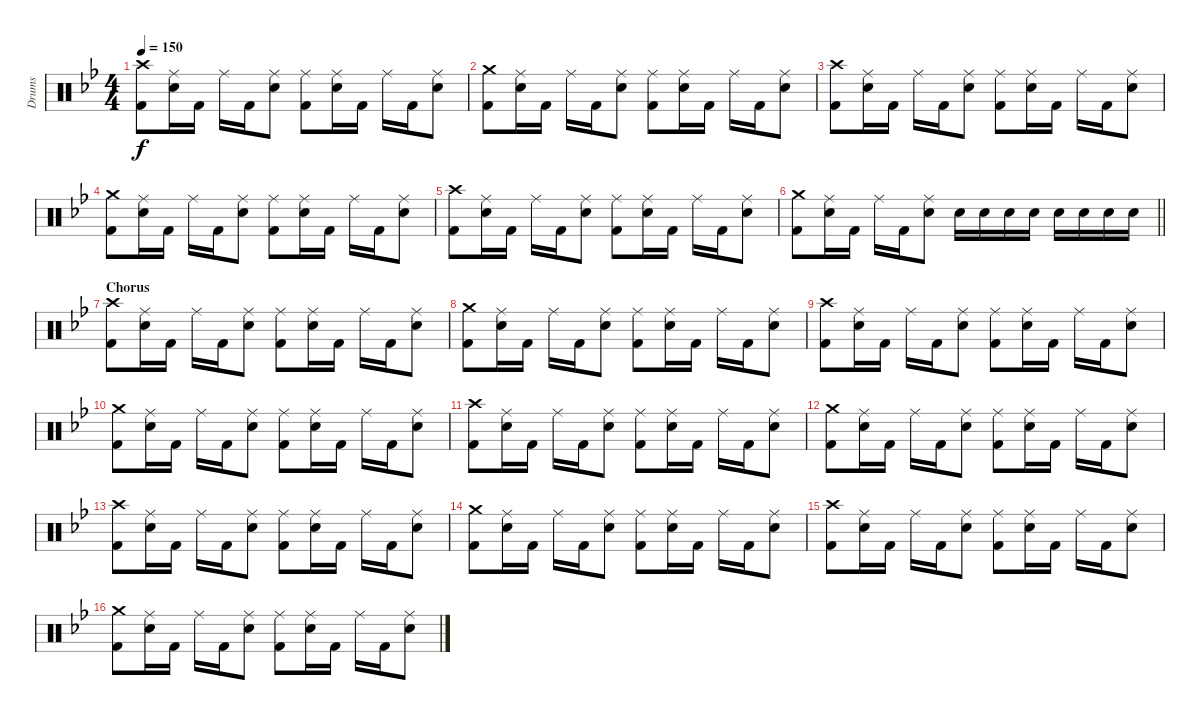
\track ("Drums" "Drums") {instrument percussion}
\staff {score}
\articulation defaults
\ts (4 4)
\tempo 150
\clef neutral
\ks bb
("Crash high (hit)" "Kick (hit) 2").8{dy f} ("Ride (middle)" "Snare (hit) 2").16 "Kick (hit) 2".16 "Ride (middle)".16 "Kick (hit) 2".16 ("Ride (middle)" "Snare (hit) 2").8 ("Ride (middle)" "Kick (hit) 2").8 ("Ride (middle)" "Snare (hit) 2").16 "Kick (hit) 2".16 "Ride (middle)".16 "Kick (hit) 2".16 ("Ride (middle)" "Snare (hit) 2").8 |
("Crash medium (hit)" "Kick (hit) 2").8 ("Ride (middle)" "Snare (hit) 2").16 "Kick (hit) 2".16 "Ride (middle)".16 "Kick (hit) 2".16 ("Ride (middle)" "Snare (hit) 2").8 ("Ride (middle)" "Kick (hit) 2").8 ("Ride (middle)" "Snare (hit) 2").16 "Kick (hit) 2".16 "Ride (middle)".16 "Kick (hit) 2".16 ("Ride (middle)" "Snare (hit) 2").8 |
("Crash high (hit)" "Kick (hit) 2").8 ("Ride (middle)" "Snare (hit) 2").16 "Kick (hit) 2".16 "Ride (middle)".16 "Kick (hit) 2".16 ("Ride (middle)" "Snare (hit) 2").8 ("Ride (middle)" "Kick (hit) 2").8 ("Ride (middle)" "Snare (hit) 2").16 "Kick (hit) 2".16 "Ride (middle)".16 "Kick (hit) 2".16 ("Ride (middle)" "Snare (hit) 2").8 |
("Crash medium (hit)" "Kick (hit) 2").8 ("Ride (middle)" "Snare (hit) 2").16 "Kick (hit) 2".16 "Ride (middle)".16 "Kick (hit) 2".16 ("Ride (middle)" "Snare (hit) 2").8 ("Ride (middle)" "Kick (hit) 2").8 ("Ride (middle)" "Snare (hit) 2").16 "Kick (hit) 2".16 "Ride (middle)".16 "Kick (hit) 2".16 ("Ride (middle)" "Snare (hit) 2").8 |
("Crash high (hit)" "Kick (hit) 2").8 ("Ride (middle)" "Snare (hit) 2").16 "Kick (hit) 2".16 "Ride (middle)".16 "Kick (hit) 2".16 ("Ride (middle)" "Snare (hit) 2").8 ("Ride (middle)" "Kick (hit) 2").8 ("Ride (middle)" "Snare (hit) 2").16 "Kick (hit) 2".16 "Ride (middle)".16 "Kick (hit) 2".16 ("Ride (middle)" "Snare (hit) 2").8 |
\barLineRight lightlight
("Crash medium (hit)" "Kick (hit) 2").8 ("Ride (middle)" "Snare (hit) 2").16 "Kick (hit) 2".16 "Ride (middle)".16 "Kick (hit) 2".16 ("Ride (middle)" "Snare (hit) 2").8 "Snare (hit) 2".16 "Snare (hit) 2".16 "Snare (hit) 2".16 "Snare (hit) 2".16 "Snare (hit) 2".16 "Snare (hit) 2".16 "Snare (hit) 2".16 "Snare (hit) 2".16 |
\section ("" "Chorus")
("Crash high (hit)" "Kick (hit) 2").8 ("Ride (middle)" "Snare (hit) 2").16 "Kick (hit) 2".16 "Ride (middle)".16 "Kick (hit) 2".16 ("Ride (middle)" "Snare (hit) 2").8 ("Ride (middle)" "Kick (hit) 2").8 ("Ride (middle)" "Snare (hit) 2").16 "Kick (hit) 2".16 "Ride (middle)".16 "Kick (hit) 2".16 ("Ride (middle)" "Snare (hit) 2").8 |
("Crash medium (hit)" "Kick (hit) 2").8 ("Ride (middle)" "Snare (hit) 2").16 "Kick (hit) 2".16 "Ride (middle)".16 "Kick (hit) 2".16 ("Ride (middle)" "Snare (hit) 2").8 ("Ride (middle)" "Kick (hit) 2").8 ("Ride (middle)" "Snare (hit) 2").16 "Kick (hit) 2".16 "Ride (middle)".16 "Kick (hit) 2".16 ("Ride (middle)" "Snare (hit) 2").8 |
("Crash high (hit)" "Kick (hit) 2").8 ("Ride (middle)" "Snare (hit) 2").16 "Kick (hit) 2".16 "Ride (middle)".16 "Kick (hit) 2".16 ("Ride (middle)" "Snare (hit) 2").8 ("Ride (middle)" "Kick (hit) 2").8 ("Ride (middle)" "Snare (hit) 2").16 "Kick (hit) 2".16 "Ride (middle)".16 "Kick (hit) 2".16 ("Ride (middle)" "Snare (hit) 2").8 |
("Crash medium (hit)" "Kick (hit) 2").8 ("Ride (middle)" "Snare (hit) 2").16 "Kick (hit) 2".16 "Ride (middle)".16 "Kick (hit) 2".16 ("Ride (middle)" "Snare (hit) 2").8 ("Ride (middle)" "Kick (hit) 2").8 ("Ride (middle)" "Snare (hit) 2").16 "Kick (hit) 2".16 "Ride (middle)".16 "Kick (hit) 2".16 ("Ride (middle)" "Snare (hit) 2").8 |
("Crash high (hit)" "Kick (hit) 2").8 ("Ride (middle)" "Snare (hit) 2").16 "Kick (hit) 2".16 "Ride (middle)".16 "Kick (hit) 2".16 ("Ride (middle)" "Snare (hit) 2").8 ("Ride (middle)" "Kick (hit) 2").8 ("Ride (middle)" "Snare (hit) 2").16 "Kick (hit) 2".16 "Ride (middle)".16 "Kick (hit) 2".16 ("Ride (middle)" "Snare (hit) 2").8 |
("Crash medium (hit)" "Kick (hit) 2").8 ("Ride (middle)" "Snare (hit) 2").16 "Kick (hit) 2".16 "Ride (middle)".16 "Kick (hit) 2".16 ("Ride (middle)" "Snare (hit) 2").8 ("Ride (middle)" "Kick (hit) 2").8 ("Ride (middle)" "Snare (hit) 2").16 "Kick (hit) 2".16 "Ride (middle)".16 "Kick (hit) 2".16 ("Ride (middle)" "Snare (hit) 2").8 |
("Crash high (hit)" "Kick (hit) 2").8 ("Ride (middle)" "Snare (hit) 2").16 "Kick (hit) 2".16 "Ride (middle)".16 "Kick (hit) 2".16 ("Ride (middle)" "Snare (hit) 2").8 ("Ride (middle)" "Kick (hit) 2").8 ("Ride (middle)" "Snare (hit) 2").16 "Kick (hit) 2".16 "Ride (middle)".16 "Kick (hit) 2".16 ("Ride (middle)" "Snare (hit) 2").8 |
("Crash medium (hit)" "Kick (hit) 2").8 ("Ride (middle)" "Snare (hit) 2").16 "Kick (hit) 2".16 "Ride (middle)".16 "Kick (hit) 2".16 ("Ride (middle)" "Snare (hit) 2").8 ("Ride (middle)" "Kick (hit) 2").8 ("Ride (middle)" "Snare (hit) 2").16 "Kick (hit) 2".16 "Ride (middle)".16 "Kick (hit) 2".16 ("Ride (middle)" "Snare (hit) 2").8 |
("Crash high (hit)" "Kick (hit) 2").8 ("Ride (middle)" "Snare (hit) 2").16 "Kick (hit) 2".16 "Ride (middle)".16 "Kick (hit) 2".16 ("Ride (middle)" "Snare (hit) 2").8 ("Ride (middle)" "Kick (hit) 2").8 ("Ride (middle)" "Snare (hit) 2").16 "Kick (hit) 2".16 "Ride (middle)".16 "Kick (hit) 2".16 ("Ride (middle)" "Snare (hit) 2").8 |
("Crash medium (hit)" "Kick (hit) 2").8 ("Ride (middle)" "Snare (hit) 2").16 "Kick (hit) 2".16 "Ride (middle)".16 "Kick (hit) 2".16 ("Ride (middle)" "Snare (hit) 2").8 ("Ride (middle)" "Kick (hit) 2").8 ("Ride (middle)" "Snare (hit) 2").16 "Kick (hit) 2".16 "Ride (middle)".16 "Kick (hit) 2".16 ("Ride (middle)" "Snare (hit) 2").8
